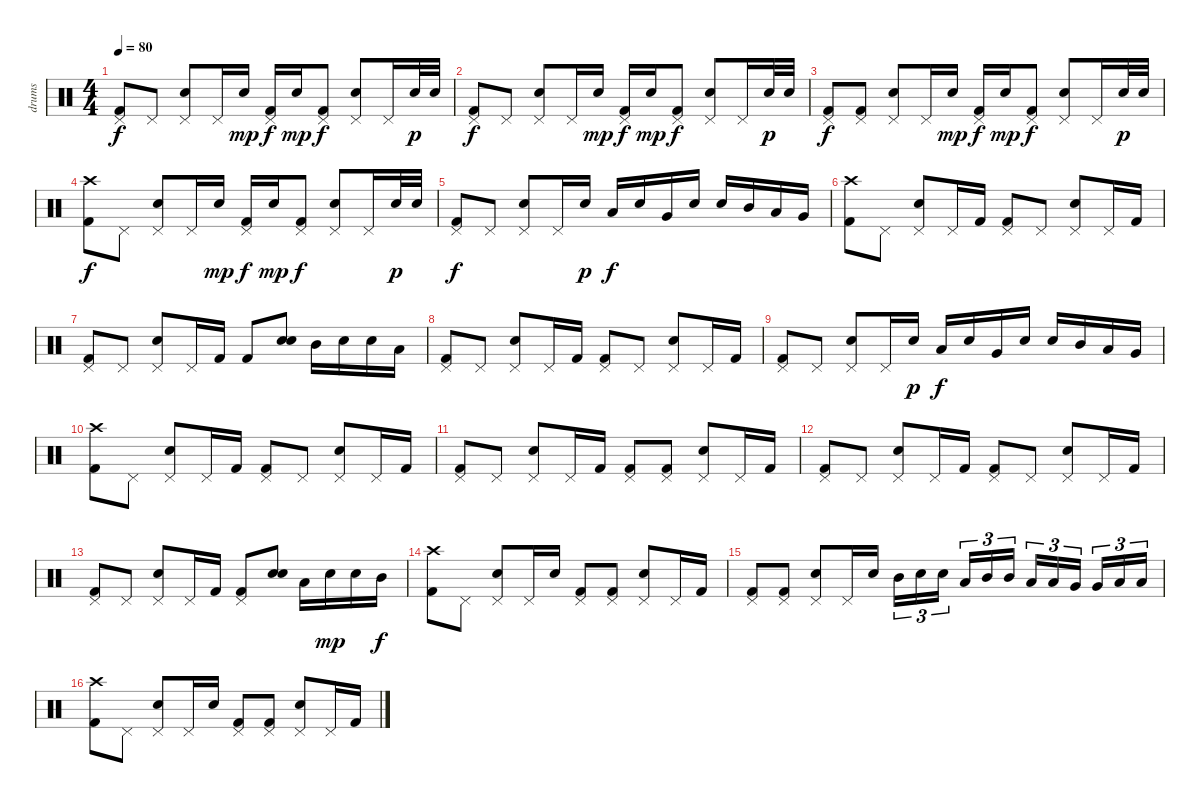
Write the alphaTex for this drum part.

\track ("drums" "drums") {instrument percussion}
\staff {score}
\articulation defaults
\ts (4 4)
\tempo 80
\clef neutral
\ks c
("Pedal Hi-Hat (hit)" "Kick (hit) 2").8{dy f} "Pedal Hi-Hat (hit)".8 ("Pedal Hi-Hat (hit)" "Electric Snare (hit)").8 "Pedal Hi-Hat (hit)".16 "Electric Snare (hit)".16{dy mp} ("Pedal Hi-Hat (hit)" "Kick (hit) 2").16{dy f} "Electric Snare (hit)".16{dy mp} ("Pedal Hi-Hat (hit)" "Kick (hit) 2").8{dy f} ("Pedal Hi-Hat (hit)" "Electric Snare (hit)").8 "Pedal Hi-Hat (hit)".16 "Electric Snare (hit)".32{dy p} "Electric Snare (hit)".32 |
("Pedal Hi-Hat (hit)" "Kick (hit) 2").8{dy f} "Pedal Hi-Hat (hit)".8 ("Pedal Hi-Hat (hit)" "Electric Snare (hit)").8 "Pedal Hi-Hat (hit)".16 "Electric Snare (hit)".16{dy mp} ("Pedal Hi-Hat (hit)" "Kick (hit) 2").16{dy f} "Electric Snare (hit)".16{dy mp} ("Pedal Hi-Hat (hit)" "Kick (hit) 2").8{dy f} ("Pedal Hi-Hat (hit)" "Electric Snare (hit)").8 "Pedal Hi-Hat (hit)".16 "Electric Snare (hit)".32{dy p} "Electric Snare (hit)".32 |
("Pedal Hi-Hat (hit)" "Kick (hit) 2").8{dy f} ("Pedal Hi-Hat (hit)" "Kick (hit) 2").8 ("Pedal Hi-Hat (hit)" "Electric Snare (hit)").8 "Pedal Hi-Hat (hit)".16 "Electric Snare (hit)".16{dy mp} ("Pedal Hi-Hat (hit)" "Kick (hit) 2").16{dy f} "Electric Snare (hit)".16{dy mp} ("Pedal Hi-Hat (hit)" "Kick (hit) 2").8{dy f} ("Pedal Hi-Hat (hit)" "Electric Snare (hit)").8 "Pedal Hi-Hat (hit)".16 "Electric Snare (hit)".32{dy p} "Electric Snare (hit)".32 |
("Crash high (hit)" "Kick (hit) 2").8{dy f} "Pedal Hi-Hat (hit)".8 ("Pedal Hi-Hat (hit)" "Electric Snare (hit)").8 "Pedal Hi-Hat (hit)".16 "Electric Snare (hit)".16{dy mp} ("Pedal Hi-Hat (hit)" "Kick (hit) 2").16{dy f} "Electric Snare (hit)".16{dy mp} ("Pedal Hi-Hat (hit)" "Kick (hit) 2").8{dy f} ("Pedal Hi-Hat (hit)" "Electric Snare (hit)").8 "Pedal Hi-Hat (hit)".16 "Electric Snare (hit)".32{dy p} "Electric Snare (hit)".32 |
("Pedal Hi-Hat (hit)" "Kick (hit) 2").8{dy f} "Pedal Hi-Hat (hit)".8 ("Pedal Hi-Hat (hit)" "Electric Snare (hit)").8 "Pedal Hi-Hat (hit)".16 "Electric Snare (hit)".16{dy p} "Low Tom (hit)".16{dy f} "Electric Snare (hit)".16 "Very Low Tom (hit)".16 "Electric Snare (hit)".16 "Electric Snare (hit)".16 "Mid Tom (hit)".16 "Low Tom (hit)".16 "Very Low Tom (hit)".16 |
("Crash high (hit)" "Kick (hit) 2").8 "Pedal Hi-Hat (hit)".8 ("Pedal Hi-Hat (hit)" "Electric Snare (hit)").8 "Pedal Hi-Hat (hit)".16 "Kick (hit) 2".16 ("Pedal Hi-Hat (hit)" "Kick (hit) 2").8 "Pedal Hi-Hat (hit)".8 ("Pedal Hi-Hat (hit)" "Electric Snare (hit)").8 "Pedal Hi-Hat (hit)".16 "Kick (hit) 2".16 |
("Pedal Hi-Hat (hit)" "Kick (hit) 2").8 "Pedal Hi-Hat (hit)".8 ("Pedal Hi-Hat (hit)" "Electric Snare (hit)").8 "Pedal Hi-Hat (hit)".16 "Kick (hit) 2".16 "Kick (hit) 2".8 ("Electric Snare (hit)" "Electric Snare (hit)").8 "Mid Tom (hit)".16 "Electric Snare (hit)".16 "Electric Snare (hit)".16 "Low Tom (hit)".16 |
("Pedal Hi-Hat (hit)" "Kick (hit) 2").8 "Pedal Hi-Hat (hit)".8 ("Pedal Hi-Hat (hit)" "Electric Snare (hit)").8 "Pedal Hi-Hat (hit)".16 "Kick (hit) 2".16 ("Pedal Hi-Hat (hit)" "Kick (hit) 2").8 "Pedal Hi-Hat (hit)".8 ("Pedal Hi-Hat (hit)" "Electric Snare (hit)").8 "Pedal Hi-Hat (hit)".16 "Kick (hit) 2".16 |
("Pedal Hi-Hat (hit)" "Kick (hit) 2").8 "Pedal Hi-Hat (hit)".8 ("Pedal Hi-Hat (hit)" "Electric Snare (hit)").8 "Pedal Hi-Hat (hit)".16 "Electric Snare (hit)".16{dy p} "Low Tom (hit)".16{dy f} "Electric Snare (hit)".16 "Very Low Tom (hit)".16 "Electric Snare (hit)".16 "Electric Snare (hit)".16 "Mid Tom (hit)".16 "Low Tom (hit)".16 "Very Low Tom (hit)".16 |
("Crash high (hit)" "Kick (hit) 2").8 "Pedal Hi-Hat (hit)".8 ("Pedal Hi-Hat (hit)" "Electric Snare (hit)").8 "Pedal Hi-Hat (hit)".16 "Kick (hit) 2".16 ("Pedal Hi-Hat (hit)" "Kick (hit) 2").8 "Pedal Hi-Hat (hit)".8 ("Pedal Hi-Hat (hit)" "Electric Snare (hit)").8 "Pedal Hi-Hat (hit)".16 "Kick (hit) 2".16 |
("Pedal Hi-Hat (hit)" "Kick (hit) 2").8 "Pedal Hi-Hat (hit)".8 ("Pedal Hi-Hat (hit)" "Electric Snare (hit)").8 "Pedal Hi-Hat (hit)".16 "Kick (hit) 2".16 ("Pedal Hi-Hat (hit)" "Kick (hit) 2").8 ("Pedal Hi-Hat (hit)" "Kick (hit) 2").8 ("Pedal Hi-Hat (hit)" "Electric Snare (hit)").8 "Pedal Hi-Hat (hit)".16 "Kick (hit) 2".16 |
("Pedal Hi-Hat (hit)" "Kick (hit) 2").8 "Pedal Hi-Hat (hit)".8 ("Pedal Hi-Hat (hit)" "Electric Snare (hit)").8 "Pedal Hi-Hat (hit)".16 "Kick (hit) 2".16 ("Pedal Hi-Hat (hit)" "Kick (hit) 2").8 "Pedal Hi-Hat (hit)".8 ("Pedal Hi-Hat (hit)" "Electric Snare (hit)").8 "Pedal Hi-Hat (hit)".16 "Kick (hit) 2".16 |
("Pedal Hi-Hat (hit)" "Kick (hit) 2").8 "Pedal Hi-Hat (hit)".8 ("Pedal Hi-Hat (hit)" "Electric Snare (hit)").8 "Pedal Hi-Hat (hit)".16 "Kick (hit) 2".16 ("Pedal Hi-Hat (hit)" "Kick (hit) 2").8 ("Electric Snare (hit)" "Electric Snare (hit)").8 "Low Tom (hit)".16 "Electric Snare (hit)".16{dy mp} "Electric Snare (hit)".16 "Mid Tom (hit)".16{dy f} |
("Crash high (hit)" "Kick (hit) 2").8 "Pedal Hi-Hat (hit)".8 ("Pedal Hi-Hat (hit)" "Electric Snare (hit)").8 "Pedal Hi-Hat (hit)".16 "Electric Snare (hit)".16 ("Pedal Hi-Hat (hit)" "Kick (hit) 2").8 ("Pedal Hi-Hat (hit)" "Kick (hit) 2").8 ("Pedal Hi-Hat (hit)" "Electric Snare (hit)").8 "Pedal Hi-Hat (hit)".16 "Kick (hit) 2".16 |
("Pedal Hi-Hat (hit)" "Kick (hit) 2").8 ("Pedal Hi-Hat (hit)" "Kick (hit) 2").8 ("Pedal Hi-Hat (hit)" "Electric Snare (hit)").8 "Pedal Hi-Hat (hit)".16 "Electric Snare (hit)".16 "Mid Tom (hit)".16{tu (3 2)} "Electric Snare (hit)".16{tu (3 2)} "Electric Snare (hit)".16{tu (3 2)} "Low Tom (hit)".16{tu (3 2)} "Mid Tom (hit)".16{tu (3 2)} "Mid Tom (hit)".16{tu (3 2)} "Low Tom (hit)".16{tu (3 2)} "Low Tom (hit)".16{tu (3 2)} "Very Low Tom (hit)".16{tu (3 2)} "Very Low Tom (hit)".16{tu (3 2)} "Low Tom (hit)".16{tu (3 2)} "Low Tom (hit)".16{tu (3 2)} |
("Crash high (hit)" "Kick (hit) 2").8 "Pedal Hi-Hat (hit)".8 ("Pedal Hi-Hat (hit)" "Electric Snare (hit)").8 "Pedal Hi-Hat (hit)".16 "Electric Snare (hit)".16 ("Pedal Hi-Hat (hit)" "Kick (hit) 2").8 ("Pedal Hi-Hat (hit)" "Kick (hit) 2").8 ("Pedal Hi-Hat (hit)" "Electric Snare (hit)").8 "Pedal Hi-Hat (hit)".16 "Kick (hit) 2".16
